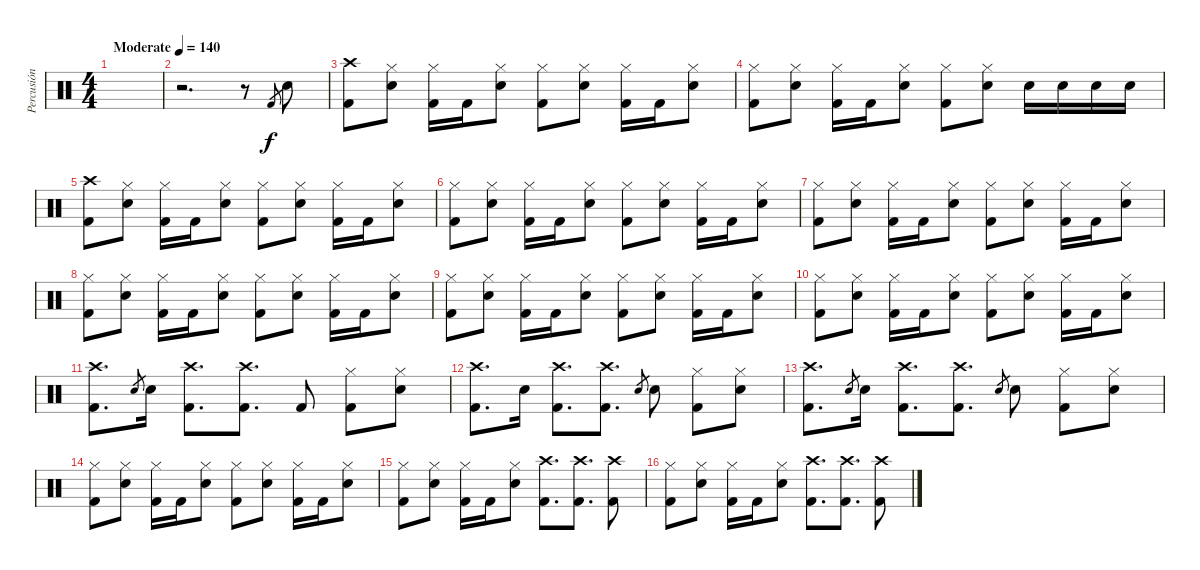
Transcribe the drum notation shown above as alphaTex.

\track ("Percusión" "Percusión") {instrument percussion}
\staff {score}
\articulation defaults
\ts (4 4)
\tempo (140 "Moderate")
\clef neutral
\ks c
|
r.2{d} r.8 "Kick (hit) 2".8{gr} "Snare (hit) 2".8 |
("Crash high (hit)" "Kick (hit) 2").8 ("Hi-Hat (closed)" "Snare (hit) 2").8 ("Hi-Hat (closed)" "Kick (hit) 2").16 "Kick (hit) 2".16 ("Hi-Hat (closed)" "Snare (hit) 2").8 ("Hi-Hat (closed)" "Kick (hit) 2").8 ("Hi-Hat (closed)" "Snare (hit) 2").8 ("Hi-Hat (closed)" "Kick (hit) 2").16 "Kick (hit) 2".16 ("Hi-Hat (closed)" "Snare (hit) 2").8 |
("Hi-Hat (closed)" "Kick (hit) 2").8 ("Hi-Hat (closed)" "Snare (hit) 2").8 ("Hi-Hat (closed)" "Kick (hit) 2").16 "Kick (hit) 2".16 ("Hi-Hat (closed)" "Snare (hit) 2").8 ("Hi-Hat (closed)" "Kick (hit) 2").8 ("Hi-Hat (closed)" "Snare (hit) 2").8 "Snare (hit) 2".16 "Snare (hit) 2".16 "Snare (hit) 2".16 "Snare (hit) 2".16 |
("Crash high (hit)" "Kick (hit) 2").8 ("Hi-Hat (closed)" "Snare (hit) 2").8 ("Hi-Hat (closed)" "Kick (hit) 2").16 "Kick (hit) 2".16 ("Hi-Hat (closed)" "Snare (hit) 2").8 ("Hi-Hat (closed)" "Kick (hit) 2").8 ("Hi-Hat (closed)" "Snare (hit) 2").8 ("Hi-Hat (closed)" "Kick (hit) 2").16 "Kick (hit) 2".16 ("Hi-Hat (closed)" "Snare (hit) 2").8 |
("Hi-Hat (closed)" "Kick (hit) 2").8 ("Hi-Hat (closed)" "Snare (hit) 2").8 ("Hi-Hat (closed)" "Kick (hit) 2").16 "Kick (hit) 2".16 ("Hi-Hat (closed)" "Snare (hit) 2").8 ("Hi-Hat (closed)" "Kick (hit) 2").8 ("Hi-Hat (closed)" "Snare (hit) 2").8 ("Hi-Hat (closed)" "Kick (hit) 2").16 "Kick (hit) 2".16 ("Hi-Hat (closed)" "Snare (hit) 2").8 |
("Hi-Hat (closed)" "Kick (hit) 2").8 ("Hi-Hat (closed)" "Snare (hit) 2").8 ("Hi-Hat (closed)" "Kick (hit) 2").16 "Kick (hit) 2".16 ("Hi-Hat (closed)" "Snare (hit) 2").8 ("Hi-Hat (closed)" "Kick (hit) 2").8 ("Hi-Hat (closed)" "Snare (hit) 2").8 ("Hi-Hat (closed)" "Kick (hit) 2").16 "Kick (hit) 2".16 ("Hi-Hat (closed)" "Snare (hit) 2").8 |
("Hi-Hat (closed)" "Kick (hit) 2").8 ("Hi-Hat (closed)" "Snare (hit) 2").8 ("Hi-Hat (closed)" "Kick (hit) 2").16 "Kick (hit) 2".16 ("Hi-Hat (closed)" "Snare (hit) 2").8 ("Hi-Hat (closed)" "Kick (hit) 2").8 ("Hi-Hat (closed)" "Snare (hit) 2").8 ("Hi-Hat (closed)" "Kick (hit) 2").16 "Kick (hit) 2".16 ("Hi-Hat (closed)" "Snare (hit) 2").8 |
("Hi-Hat (closed)" "Kick (hit) 2").8 ("Hi-Hat (closed)" "Snare (hit) 2").8 ("Hi-Hat (closed)" "Kick (hit) 2").16 "Kick (hit) 2".16 ("Hi-Hat (closed)" "Snare (hit) 2").8 ("Hi-Hat (closed)" "Kick (hit) 2").8 ("Hi-Hat (closed)" "Snare (hit) 2").8 ("Hi-Hat (closed)" "Kick (hit) 2").16 "Kick (hit) 2".16 ("Hi-Hat (closed)" "Snare (hit) 2").8 |
("Hi-Hat (closed)" "Kick (hit) 2").8 ("Hi-Hat (closed)" "Snare (hit) 2").8 ("Hi-Hat (closed)" "Kick (hit) 2").16 "Kick (hit) 2".16 ("Hi-Hat (closed)" "Snare (hit) 2").8 ("Hi-Hat (closed)" "Kick (hit) 2").8 ("Hi-Hat (closed)" "Snare (hit) 2").8 ("Hi-Hat (closed)" "Kick (hit) 2").16 "Kick (hit) 2".16 ("Hi-Hat (closed)" "Snare (hit) 2").8 |
("Crash high (hit)" "Kick (hit) 2").8{d} "Snare (hit) 2".8{gr} "Snare (hit) 2".16 ("Crash high (hit)" "Kick (hit) 2").8{d} ("Crash high (hit)" "Kick (hit) 2").8{d} "Kick (hit) 2".8 ("Hi-Hat (closed)" "Kick (hit) 2").8 ("Hi-Hat (closed)" "Snare (hit) 2").8 |
("Crash high (hit)" "Kick (hit) 2").8{d} "Snare (hit) 2".16 ("Crash high (hit)" "Kick (hit) 2").8{d} ("Crash high (hit)" "Kick (hit) 2").8{d} "Snare (hit) 2".8{gr} "Snare (hit) 2".8 ("Hi-Hat (closed)" "Kick (hit) 2").8 ("Hi-Hat (closed)" "Snare (hit) 2").8 |
("Crash high (hit)" "Kick (hit) 2").8{d} "Snare (hit) 2".8{gr} "Snare (hit) 2".16 ("Crash high (hit)" "Kick (hit) 2").8{d} ("Crash high (hit)" "Kick (hit) 2").8{d} "Snare (hit) 2".8{gr} "Snare (hit) 2".8 ("Hi-Hat (closed)" "Kick (hit) 2").8 ("Hi-Hat (closed)" "Snare (hit) 2").8 |
("Hi-Hat (closed)" "Kick (hit) 2").8 ("Hi-Hat (closed)" "Snare (hit) 2").8 ("Hi-Hat (closed)" "Kick (hit) 2").16 "Kick (hit) 2".16 ("Hi-Hat (closed)" "Snare (hit) 2").8 ("Hi-Hat (closed)" "Kick (hit) 2").8 ("Hi-Hat (closed)" "Snare (hit) 2").8 ("Hi-Hat (closed)" "Kick (hit) 2").16 "Kick (hit) 2".16 ("Hi-Hat (closed)" "Snare (hit) 2").8 |
("Hi-Hat (closed)" "Kick (hit) 2").8 ("Hi-Hat (closed)" "Snare (hit) 2").8 ("Hi-Hat (closed)" "Kick (hit) 2").16 "Kick (hit) 2".16 ("Hi-Hat (closed)" "Snare (hit) 2").8 ("Crash high (hit)" "Kick (hit) 2").8{d} ("Crash high (hit)" "Kick (hit) 2").8{d} ("Crash high (hit)" "Kick (hit) 2").8 |
("Hi-Hat (closed)" "Kick (hit) 2").8 ("Hi-Hat (closed)" "Snare (hit) 2").8 ("Hi-Hat (closed)" "Kick (hit) 2").16 "Kick (hit) 2".16 ("Hi-Hat (closed)" "Snare (hit) 2").8 ("Crash high (hit)" "Kick (hit) 2").8{d} ("Crash high (hit)" "Kick (hit) 2").8{d} ("Crash high (hit)" "Kick (hit) 2").8
